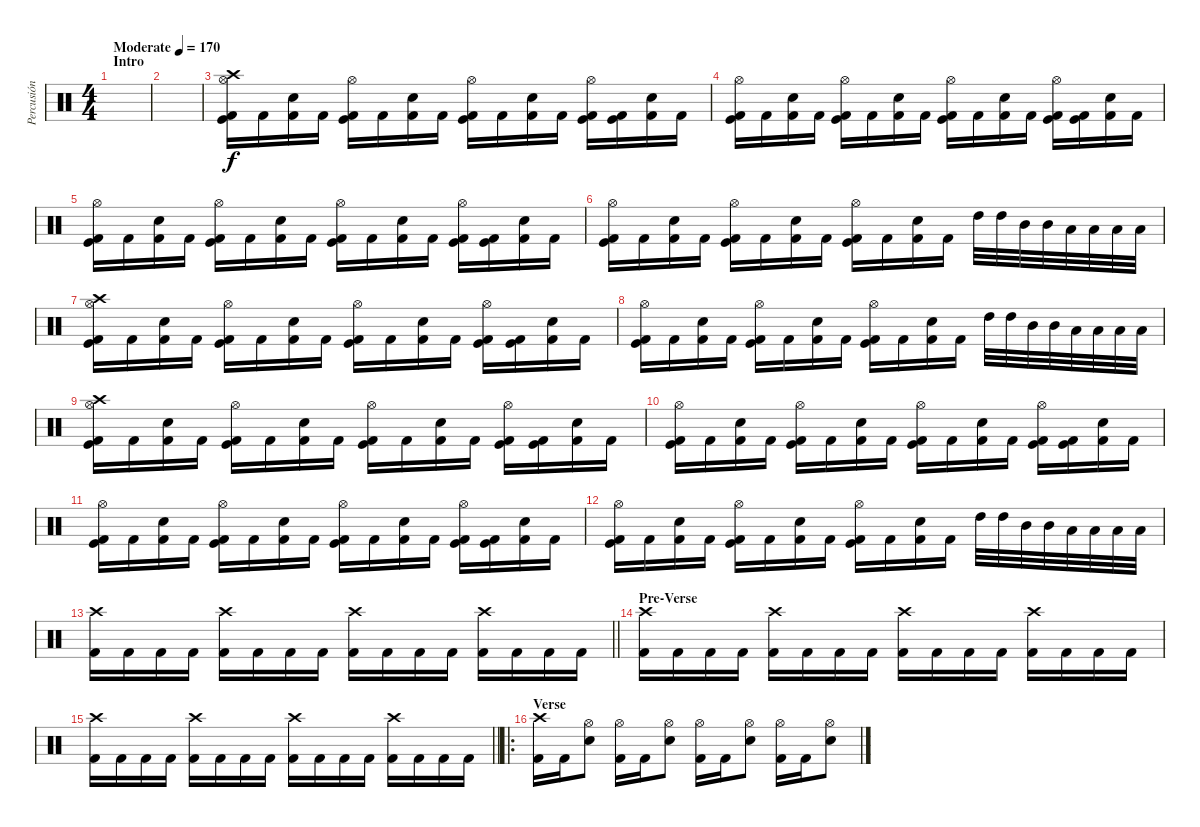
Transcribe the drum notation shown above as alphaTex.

\track ("Percusión" "Percusión") {instrument percussion}
\staff {score}
\articulation defaults
\ts (4 4)
\section ("" "Intro")
\tempo (170 "Moderate")
\clef neutral
\ks c
|
|
("Crash high (hit)" "Hi-Hat (open)" "Kick (hit)" "Kick (hit) 2").16 "Kick (hit) 2".16 ("Snare (hit) 2" "Kick (hit) 2").16 "Kick (hit) 2".16 ("Hi-Hat (open)" "Kick (hit)" "Kick (hit) 2").16 "Kick (hit) 2".16 ("Snare (hit) 2" "Kick (hit) 2").16 "Kick (hit) 2".16 ("Hi-Hat (open)" "Kick (hit)" "Kick (hit) 2").16 "Kick (hit) 2".16 ("Snare (hit) 2" "Kick (hit) 2").16 "Kick (hit) 2".16 ("Hi-Hat (open)" "Kick (hit)" "Kick (hit) 2").16 ("Kick (hit)" "Kick (hit) 2").16 ("Snare (hit) 2" "Kick (hit) 2").16 "Kick (hit) 2".16 |
("Hi-Hat (open)" "Kick (hit)" "Kick (hit) 2").16 "Kick (hit) 2".16 ("Snare (hit) 2" "Kick (hit) 2").16 "Kick (hit) 2".16 ("Hi-Hat (open)" "Kick (hit)" "Kick (hit) 2").16 "Kick (hit) 2".16 ("Snare (hit) 2" "Kick (hit) 2").16 "Kick (hit) 2".16 ("Hi-Hat (open)" "Kick (hit)" "Kick (hit) 2").16 "Kick (hit) 2".16 ("Snare (hit) 2" "Kick (hit) 2").16 "Kick (hit) 2".16 ("Hi-Hat (open)" "Kick (hit)" "Kick (hit) 2").16 ("Kick (hit)" "Kick (hit) 2").16 ("Snare (hit) 2" "Kick (hit) 2").16 "Kick (hit) 2".16 |
("Hi-Hat (open)" "Kick (hit)" "Kick (hit) 2").16 "Kick (hit) 2".16 ("Snare (hit) 2" "Kick (hit) 2").16 "Kick (hit) 2".16 ("Hi-Hat (open)" "Kick (hit)" "Kick (hit) 2").16 "Kick (hit) 2".16 ("Snare (hit) 2" "Kick (hit) 2").16 "Kick (hit) 2".16 ("Hi-Hat (open)" "Kick (hit)" "Kick (hit) 2").16 "Kick (hit) 2".16 ("Snare (hit) 2" "Kick (hit) 2").16 "Kick (hit) 2".16 ("Hi-Hat (open)" "Kick (hit)" "Kick (hit) 2").16 ("Kick (hit)" "Kick (hit) 2").16 ("Snare (hit) 2" "Kick (hit) 2").16 "Kick (hit) 2".16 |
("Hi-Hat (open)" "Kick (hit)" "Kick (hit) 2").16 "Kick (hit) 2".16 ("Snare (hit) 2" "Kick (hit) 2").16 "Kick (hit) 2".16 ("Hi-Hat (open)" "Kick (hit)" "Kick (hit) 2").16 "Kick (hit) 2".16 ("Snare (hit) 2" "Kick (hit) 2").16 "Kick (hit) 2".16 ("Hi-Hat (open)" "Kick (hit)" "Kick (hit) 2").16 "Kick (hit) 2".16 ("Snare (hit) 2" "Kick (hit) 2").16 "Kick (hit) 2".16 "High Tom (hit)".32 "High Tom (hit)".32 "Mid Tom (hit)".32 "Mid Tom (hit)".32 "Low Tom (hit)".32 "Low Tom (hit)".32 "Low Tom (hit)".32 "Low Tom (hit)".32 |
("Crash high (hit)" "Hi-Hat (open)" "Kick (hit)" "Kick (hit) 2").16 "Kick (hit) 2".16 ("Snare (hit) 2" "Kick (hit) 2").16 "Kick (hit) 2".16 ("Hi-Hat (open)" "Kick (hit)" "Kick (hit) 2").16 "Kick (hit) 2".16 ("Snare (hit) 2" "Kick (hit) 2").16 "Kick (hit) 2".16 ("Hi-Hat (open)" "Kick (hit)" "Kick (hit) 2").16 "Kick (hit) 2".16 ("Snare (hit) 2" "Kick (hit) 2").16 "Kick (hit) 2".16 ("Hi-Hat (open)" "Kick (hit)" "Kick (hit) 2").16 ("Kick (hit)" "Kick (hit) 2").16 ("Snare (hit) 2" "Kick (hit) 2").16 "Kick (hit) 2".16 |
("Hi-Hat (open)" "Kick (hit)" "Kick (hit) 2").16 "Kick (hit) 2".16 ("Snare (hit) 2" "Kick (hit) 2").16 "Kick (hit) 2".16 ("Hi-Hat (open)" "Kick (hit)" "Kick (hit) 2").16 "Kick (hit) 2".16 ("Snare (hit) 2" "Kick (hit) 2").16 "Kick (hit) 2".16 ("Hi-Hat (open)" "Kick (hit)" "Kick (hit) 2").16 "Kick (hit) 2".16 ("Snare (hit) 2" "Kick (hit) 2").16 "Kick (hit) 2".16 "High Tom (hit)".32 "High Tom (hit)".32 "Mid Tom (hit)".32 "Mid Tom (hit)".32 "Low Tom (hit)".32 "Low Tom (hit)".32 "Low Tom (hit)".32 "Low Tom (hit)".32 |
("Crash high (hit)" "Hi-Hat (open)" "Kick (hit)" "Kick (hit) 2").16 "Kick (hit) 2".16 ("Snare (hit) 2" "Kick (hit) 2").16 "Kick (hit) 2".16 ("Hi-Hat (open)" "Kick (hit)" "Kick (hit) 2").16 "Kick (hit) 2".16 ("Snare (hit) 2" "Kick (hit) 2").16 "Kick (hit) 2".16 ("Hi-Hat (open)" "Kick (hit)" "Kick (hit) 2").16 "Kick (hit) 2".16 ("Snare (hit) 2" "Kick (hit) 2").16 "Kick (hit) 2".16 ("Hi-Hat (open)" "Kick (hit)" "Kick (hit) 2").16 ("Kick (hit)" "Kick (hit) 2").16 ("Snare (hit) 2" "Kick (hit) 2").16 "Kick (hit) 2".16 |
("Hi-Hat (open)" "Kick (hit)" "Kick (hit) 2").16 "Kick (hit) 2".16 ("Snare (hit) 2" "Kick (hit) 2").16 "Kick (hit) 2".16 ("Hi-Hat (open)" "Kick (hit)" "Kick (hit) 2").16 "Kick (hit) 2".16 ("Snare (hit) 2" "Kick (hit) 2").16 "Kick (hit) 2".16 ("Hi-Hat (open)" "Kick (hit)" "Kick (hit) 2").16 "Kick (hit) 2".16 ("Snare (hit) 2" "Kick (hit) 2").16 "Kick (hit) 2".16 ("Hi-Hat (open)" "Kick (hit)" "Kick (hit) 2").16 ("Kick (hit)" "Kick (hit) 2").16 ("Snare (hit) 2" "Kick (hit) 2").16 "Kick (hit) 2".16 |
("Hi-Hat (open)" "Kick (hit)" "Kick (hit) 2").16 "Kick (hit) 2".16 ("Snare (hit) 2" "Kick (hit) 2").16 "Kick (hit) 2".16 ("Hi-Hat (open)" "Kick (hit)" "Kick (hit) 2").16 "Kick (hit) 2".16 ("Snare (hit) 2" "Kick (hit) 2").16 "Kick (hit) 2".16 ("Hi-Hat (open)" "Kick (hit)" "Kick (hit) 2").16 "Kick (hit) 2".16 ("Snare (hit) 2" "Kick (hit) 2").16 "Kick (hit) 2".16 ("Hi-Hat (open)" "Kick (hit)" "Kick (hit) 2").16 ("Kick (hit)" "Kick (hit) 2").16 ("Snare (hit) 2" "Kick (hit) 2").16 "Kick (hit) 2".16 |
("Hi-Hat (open)" "Kick (hit)" "Kick (hit) 2").16 "Kick (hit) 2".16 ("Snare (hit) 2" "Kick (hit) 2").16 "Kick (hit) 2".16 ("Hi-Hat (open)" "Kick (hit)" "Kick (hit) 2").16 "Kick (hit) 2".16 ("Snare (hit) 2" "Kick (hit) 2").16 "Kick (hit) 2".16 ("Hi-Hat (open)" "Kick (hit)" "Kick (hit) 2").16 "Kick (hit) 2".16 ("Snare (hit) 2" "Kick (hit) 2").16 "Kick (hit) 2".16 "High Tom (hit)".32 "High Tom (hit)".32 "Mid Tom (hit)".32 "Mid Tom (hit)".32 "Low Tom (hit)".32 "Low Tom (hit)".32 "Low Tom (hit)".32 "Low Tom (hit)".32 |
\barLineRight lightlight
("Crash high (hit)" "Kick (hit) 2").16 "Kick (hit) 2".16 "Kick (hit) 2".16 "Kick (hit) 2".16 ("Crash high (hit)" "Kick (hit) 2").16 "Kick (hit) 2".16 "Kick (hit) 2".16 "Kick (hit) 2".16 ("Crash high (hit)" "Kick (hit) 2").16 "Kick (hit) 2".16 "Kick (hit) 2".16 "Kick (hit) 2".16 ("Crash high (hit)" "Kick (hit) 2").16 "Kick (hit) 2".16 "Kick (hit) 2".16 "Kick (hit) 2".16 |
\section ("" "Pre-Verse")
("Crash high (hit)" "Kick (hit) 2").16 "Kick (hit) 2".16 "Kick (hit) 2".16 "Kick (hit) 2".16 ("Crash high (hit)" "Kick (hit) 2").16 "Kick (hit) 2".16 "Kick (hit) 2".16 "Kick (hit) 2".16 ("Crash high (hit)" "Kick (hit) 2").16 "Kick (hit) 2".16 "Kick (hit) 2".16 "Kick (hit) 2".16 ("Crash high (hit)" "Kick (hit) 2").16 "Kick (hit) 2".16 "Kick (hit) 2".16 "Kick (hit) 2".16 |
\barLineRight lightlight
("Crash high (hit)" "Kick (hit) 2").16 "Kick (hit) 2".16 "Kick (hit) 2".16 "Kick (hit) 2".16 ("Crash high (hit)" "Kick (hit) 2").16 "Kick (hit) 2".16 "Kick (hit) 2".16 "Kick (hit) 2".16 ("Crash high (hit)" "Kick (hit) 2").16 "Kick (hit) 2".16 "Kick (hit) 2".16 "Kick (hit) 2".16 ("Crash high (hit)" "Kick (hit) 2").16 "Kick (hit) 2".16 "Kick (hit) 2".16 "Kick (hit) 2".16 |
\ro
\section ("" "Verse")
("Crash high (hit)" "Kick (hit) 2").16 "Kick (hit) 2".16 ("Hi-Hat (open)" "Snare (hit) 2").8 ("Hi-Hat (open)" "Kick (hit) 2").16 "Kick (hit) 2".16 ("Hi-Hat (open)" "Snare (hit) 2").8 ("Hi-Hat (open)" "Kick (hit) 2").16 "Kick (hit) 2".16 ("Hi-Hat (open)" "Snare (hit) 2").8 ("Hi-Hat (open)" "Kick (hit) 2").16 "Kick (hit) 2".16 ("Hi-Hat (open)" "Snare (hit) 2").8
